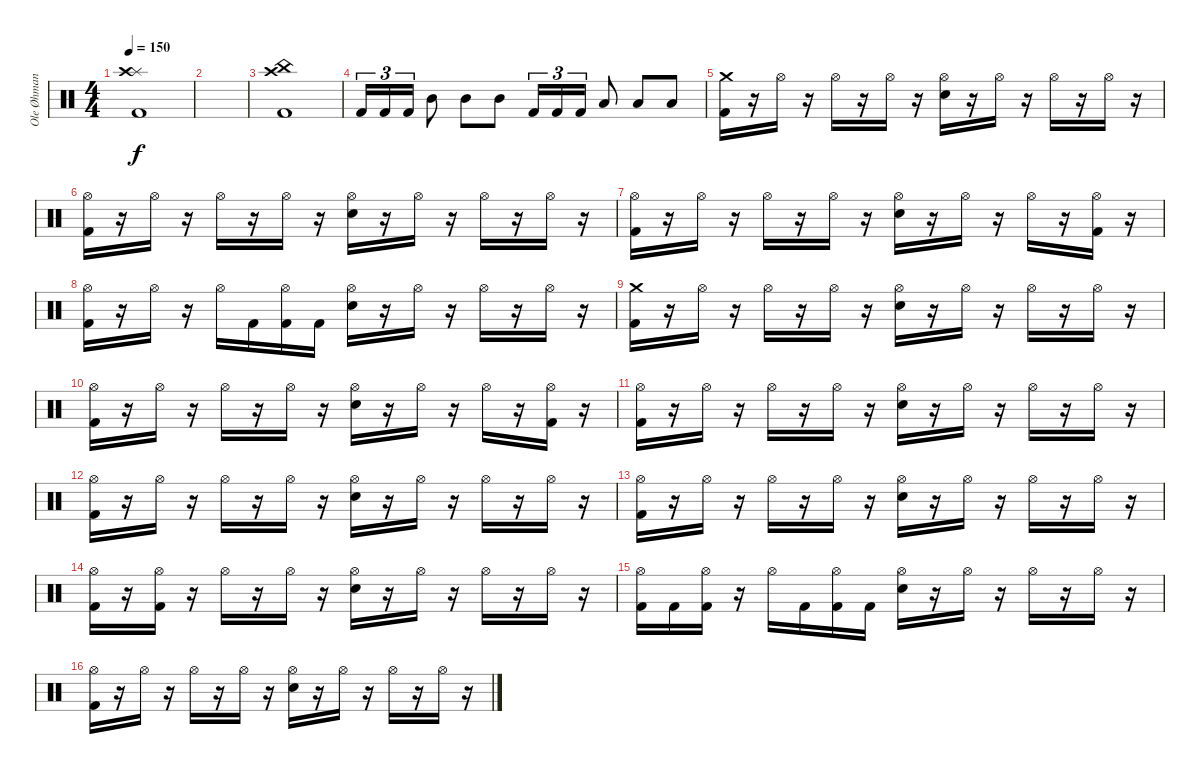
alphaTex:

\track ("Ole Øhman (Trommur)" "Ole Øhman ") {instrument percussion}
\staff {score}
\articulation defaults
\ts (4 4)
\tempo 150
\clef neutral
\ks c
("Splash (hit)" "Crash high (hit)" "Kick (hit) 2").1{dy f} |
|
("Crash high (hit)" "China (hit)" "Kick (hit) 2").1 |
"Kick (hit) 2".16{tu (3 2)} "Kick (hit) 2".16{tu (3 2)} "Kick (hit) 2".16{tu (3 2)} "Mid Tom (hit)".8 "Mid Tom (hit)".8 "Mid Tom (hit)".8 "Kick (hit) 2".16{tu (3 2)} "Kick (hit) 2".16{tu (3 2)} "Kick (hit) 2".16{tu (3 2)} "Low Tom (hit)".8 "Low Tom (hit)".8 "Low Tom (hit)".8 |
("Crash medium (hit)" "Kick (hit) 2").16 r.16 "Hi-Hat (open)".16 r.16 "Hi-Hat (open)".16 r.16 "Hi-Hat (open)".16 r.16 ("Hi-Hat (open)" "Electric Snare (hit)").16 r.16 "Hi-Hat (open)".16 r.16 "Hi-Hat (open)".16 r.16 "Hi-Hat (open)".16 r.16 |
("Hi-Hat (open)" "Kick (hit) 2").16 r.16 "Hi-Hat (open)".16 r.16 "Hi-Hat (open)".16 r.16 "Hi-Hat (open)".16 r.16 ("Hi-Hat (open)" "Electric Snare (hit)").16 r.16 "Hi-Hat (open)".16 r.16 "Hi-Hat (open)".16 r.16 "Hi-Hat (open)".16 r.16 |
("Hi-Hat (open)" "Kick (hit) 2").16 r.16 "Hi-Hat (open)".16 r.16 "Hi-Hat (open)".16 r.16 "Hi-Hat (open)".16 r.16 ("Hi-Hat (open)" "Electric Snare (hit)").16 r.16 "Hi-Hat (open)".16 r.16 "Hi-Hat (open)".16 r.16 ("Hi-Hat (open)" "Kick (hit) 2").16 r.16 |
("Hi-Hat (open)" "Kick (hit) 2").16 r.16 "Hi-Hat (open)".16 r.16 "Hi-Hat (open)".16 "Kick (hit) 2".16 ("Hi-Hat (open)" "Kick (hit) 2").16 "Kick (hit) 2".16 ("Hi-Hat (open)" "Electric Snare (hit)").16 r.16 "Hi-Hat (open)".16 r.16 "Hi-Hat (open)".16 r.16 "Hi-Hat (open)".16 r.16 |
("Crash medium (hit)" "Kick (hit) 2").16 r.16 "Hi-Hat (open)".16 r.16 "Hi-Hat (open)".16 r.16 "Hi-Hat (open)".16 r.16 ("Hi-Hat (open)" "Electric Snare (hit)").16 r.16 "Hi-Hat (open)".16 r.16 "Hi-Hat (open)".16 r.16 "Hi-Hat (open)".16 r.16 |
("Hi-Hat (open)" "Kick (hit) 2").16 r.16 "Hi-Hat (open)".16 r.16 "Hi-Hat (open)".16 r.16 "Hi-Hat (open)".16 r.16 ("Hi-Hat (open)" "Electric Snare (hit)").16 r.16 "Hi-Hat (open)".16 r.16 "Hi-Hat (open)".16 r.16 ("Hi-Hat (open)" "Kick (hit) 2").16 r.16 |
("Hi-Hat (open)" "Kick (hit) 2").16 r.16 "Hi-Hat (open)".16 r.16 "Hi-Hat (open)".16 r.16 "Hi-Hat (open)".16 r.16 ("Hi-Hat (open)" "Electric Snare (hit)").16 r.16 "Hi-Hat (open)".16 r.16 "Hi-Hat (open)".16 r.16 "Hi-Hat (open)".16 r.16 |
("Hi-Hat (open)" "Kick (hit) 2").16 r.16 "Hi-Hat (open)".16 r.16 "Hi-Hat (open)".16 r.16 "Hi-Hat (open)".16 r.16 ("Hi-Hat (open)" "Electric Snare (hit)").16 r.16 "Hi-Hat (open)".16 r.16 "Hi-Hat (open)".16 r.16 "Hi-Hat (open)".16 r.16 |
("Hi-Hat (open)" "Kick (hit) 2").16 r.16 "Hi-Hat (open)".16 r.16 "Hi-Hat (open)".16 r.16 "Hi-Hat (open)".16 r.16 ("Hi-Hat (open)" "Electric Snare (hit)").16 r.16 "Hi-Hat (open)".16 r.16 "Hi-Hat (open)".16 r.16 "Hi-Hat (open)".16 r.16 |
("Hi-Hat (open)" "Kick (hit) 2").16 r.16 ("Hi-Hat (open)" "Kick (hit) 2").16 r.16 "Hi-Hat (open)".16 r.16 "Hi-Hat (open)".16 r.16 ("Hi-Hat (open)" "Electric Snare (hit)").16 r.16 "Hi-Hat (open)".16 r.16 "Hi-Hat (open)".16 r.16 "Hi-Hat (open)".16 r.16 |
("Hi-Hat (open)" "Kick (hit) 2").16 "Kick (hit) 2".16 ("Hi-Hat (open)" "Kick (hit) 2").16 r.16 "Hi-Hat (open)".16 "Kick (hit) 2".16 ("Hi-Hat (open)" "Kick (hit) 2").16 "Kick (hit) 2".16 ("Hi-Hat (open)" "Electric Snare (hit)").16 r.16 "Hi-Hat (open)".16 r.16 "Hi-Hat (open)".16 r.16 "Hi-Hat (open)".16 r.16 |
("Hi-Hat (open)" "Kick (hit) 2").16 r.16 "Hi-Hat (open)".16 r.16 "Hi-Hat (open)".16 r.16 "Hi-Hat (open)".16 r.16 ("Hi-Hat (open)" "Electric Snare (hit)").16 r.16 "Hi-Hat (open)".16 r.16 "Hi-Hat (open)".16 r.16 "Hi-Hat (open)".16 r.16
